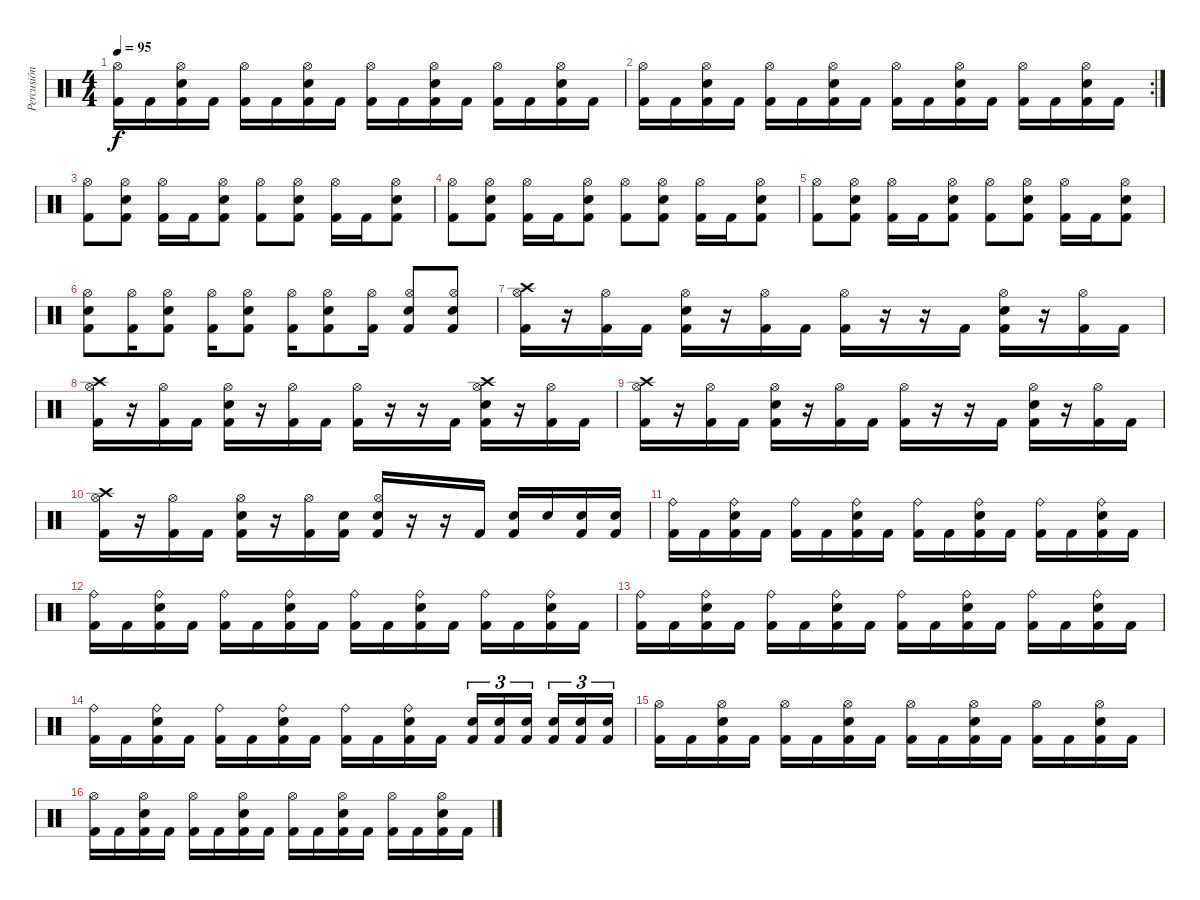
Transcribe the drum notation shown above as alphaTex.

\track ("Percusión" "Percusión") {instrument percussion}
\staff {score}
\articulation defaults
\ts (4 4)
\tempo 95
\clef neutral
\ks c
("Kick (hit) 2" "Hi-Hat (open)").16{dy f} "Kick (hit) 2".16 ("Kick (hit) 2" "Hi-Hat (open)" "Electric Snare (hit)").16 "Kick (hit) 2".16 ("Kick (hit) 2" "Hi-Hat (open)").16 "Kick (hit) 2".16 ("Kick (hit) 2" "Hi-Hat (open)" "Electric Snare (hit)").16 "Kick (hit) 2".16 ("Kick (hit) 2" "Hi-Hat (open)").16 "Kick (hit) 2".16 ("Kick (hit) 2" "Hi-Hat (open)" "Electric Snare (hit)").16 "Kick (hit) 2".16 ("Kick (hit) 2" "Hi-Hat (open)").16 "Kick (hit) 2".16 ("Kick (hit) 2" "Hi-Hat (open)" "Electric Snare (hit)").16 "Kick (hit) 2".16 |
\rc 2
("Kick (hit) 2" "Hi-Hat (open)").16 "Kick (hit) 2".16 ("Kick (hit) 2" "Hi-Hat (open)" "Electric Snare (hit)").16 "Kick (hit) 2".16 ("Kick (hit) 2" "Hi-Hat (open)").16 "Kick (hit) 2".16 ("Kick (hit) 2" "Hi-Hat (open)" "Electric Snare (hit)").16 "Kick (hit) 2".16 ("Kick (hit) 2" "Hi-Hat (open)").16 "Kick (hit) 2".16 ("Kick (hit) 2" "Hi-Hat (open)" "Electric Snare (hit)").16 "Kick (hit) 2".16 ("Kick (hit) 2" "Hi-Hat (open)").16 "Kick (hit) 2".16 ("Kick (hit) 2" "Hi-Hat (open)" "Electric Snare (hit)").16 "Kick (hit) 2".16 |
("Kick (hit) 2" "Hi-Hat (open)").8 ("Kick (hit) 2" "Hi-Hat (open)" "Electric Snare (hit)").8 ("Kick (hit) 2" "Hi-Hat (open)").16 "Kick (hit) 2".16 ("Kick (hit) 2" "Hi-Hat (open)" "Electric Snare (hit)").8 ("Kick (hit) 2" "Hi-Hat (open)").8 ("Kick (hit) 2" "Hi-Hat (open)" "Electric Snare (hit)").8 ("Kick (hit) 2" "Hi-Hat (open)").16 "Kick (hit) 2".16 ("Kick (hit) 2" "Hi-Hat (open)" "Electric Snare (hit)").8 |
("Kick (hit) 2" "Hi-Hat (open)").8 ("Kick (hit) 2" "Hi-Hat (open)" "Electric Snare (hit)").8 ("Kick (hit) 2" "Hi-Hat (open)").16 "Kick (hit) 2".16 ("Kick (hit) 2" "Hi-Hat (open)" "Electric Snare (hit)").8 ("Kick (hit) 2" "Hi-Hat (open)").8 ("Kick (hit) 2" "Hi-Hat (open)" "Electric Snare (hit)").8 ("Kick (hit) 2" "Hi-Hat (open)").16 "Kick (hit) 2".16 ("Kick (hit) 2" "Hi-Hat (open)" "Electric Snare (hit)").8 |
("Kick (hit) 2" "Hi-Hat (open)").8 ("Kick (hit) 2" "Hi-Hat (open)" "Electric Snare (hit)").8 ("Kick (hit) 2" "Hi-Hat (open)").16 "Kick (hit) 2".16 ("Kick (hit) 2" "Hi-Hat (open)" "Electric Snare (hit)").8 ("Kick (hit) 2" "Hi-Hat (open)").8 ("Kick (hit) 2" "Hi-Hat (open)" "Electric Snare (hit)").8 ("Kick (hit) 2" "Hi-Hat (open)").16 "Kick (hit) 2".16 ("Kick (hit) 2" "Hi-Hat (open)" "Electric Snare (hit)").8 |
("Kick (hit) 2" "Hi-Hat (open)" "Electric Snare (hit)").8 ("Kick (hit) 2" "Hi-Hat (open)").16 ("Kick (hit) 2" "Hi-Hat (open)" "Electric Snare (hit)").8 ("Kick (hit) 2" "Hi-Hat (open)").16 ("Kick (hit) 2" "Hi-Hat (open)" "Electric Snare (hit)").8 ("Kick (hit) 2" "Hi-Hat (open)").16 ("Kick (hit) 2" "Hi-Hat (open)" "Electric Snare (hit)").8 ("Kick (hit) 2" "Hi-Hat (open)").16 ("Kick (hit) 2" "Hi-Hat (open)" "Electric Snare (hit)").8 ("Kick (hit) 2" "Hi-Hat (open)" "Electric Snare (hit)").8 |
("Kick (hit) 2" "Hi-Hat (open)" "Crash high (hit)").16 r.16 ("Kick (hit) 2" "Hi-Hat (open)").16 "Kick (hit) 2".16 ("Kick (hit) 2" "Hi-Hat (open)" "Electric Snare (hit)").16 r.16 ("Kick (hit) 2" "Hi-Hat (open)").16 "Kick (hit) 2".16 ("Kick (hit) 2" "Hi-Hat (open)").16 r.16 r.16 "Kick (hit) 2".16 ("Kick (hit) 2" "Hi-Hat (open)" "Electric Snare (hit)").16 r.16 ("Kick (hit) 2" "Hi-Hat (open)").16 "Kick (hit) 2".16 |
("Kick (hit) 2" "Hi-Hat (open)" "Crash high (hit)").16 r.16 ("Kick (hit) 2" "Hi-Hat (open)").16 "Kick (hit) 2".16 ("Kick (hit) 2" "Hi-Hat (open)" "Electric Snare (hit)").16 r.16 ("Kick (hit) 2" "Hi-Hat (open)").16 "Kick (hit) 2".16 ("Kick (hit) 2" "Hi-Hat (open)").16 r.16 r.16 "Kick (hit) 2".16 ("Kick (hit) 2" "Hi-Hat (open)" "Electric Snare (hit)" "Crash high (hit)").16 r.16 ("Kick (hit) 2" "Hi-Hat (open)").16 "Kick (hit) 2".16 |
("Kick (hit) 2" "Hi-Hat (open)" "Crash high (hit)").16 r.16 ("Kick (hit) 2" "Hi-Hat (open)").16 "Kick (hit) 2".16 ("Kick (hit) 2" "Hi-Hat (open)" "Electric Snare (hit)").16 r.16 ("Kick (hit) 2" "Hi-Hat (open)").16 "Kick (hit) 2".16 ("Kick (hit) 2" "Hi-Hat (open)").16 r.16 r.16 "Kick (hit) 2".16 ("Kick (hit) 2" "Hi-Hat (open)" "Electric Snare (hit)").16 r.16 ("Kick (hit) 2" "Hi-Hat (open)").16 "Kick (hit) 2".16 |
("Kick (hit) 2" "Hi-Hat (open)" "Crash high (hit)").16 r.16 ("Kick (hit) 2" "Hi-Hat (open)").16 "Kick (hit) 2".16 ("Kick (hit) 2" "Hi-Hat (open)" "Electric Snare (hit)").16 r.16 ("Kick (hit) 2" "Hi-Hat (open)").16 ("Kick (hit) 2" "Electric Snare (hit)").16 ("Kick (hit) 2" "Electric Snare (hit)" "Hi-Hat (open)").16 r.16 r.16 "Kick (hit) 2".16 ("Kick (hit) 2" "Electric Snare (hit)").16 "Electric Snare (hit)".16 ("Kick (hit) 2" "Electric Snare (hit)").16 ("Kick (hit) 2" "Electric Snare (hit)").16 |
("Kick (hit) 2" "Ride (bell)").16 "Kick (hit) 2".16 ("Kick (hit) 2" "Ride (bell)" "Electric Snare (hit)").16 "Kick (hit) 2".16 ("Kick (hit) 2" "Ride (bell)").16 "Kick (hit) 2".16 ("Kick (hit) 2" "Ride (bell)" "Electric Snare (hit)").16 "Kick (hit) 2".16 ("Kick (hit) 2" "Ride (bell)").16 "Kick (hit) 2".16 ("Kick (hit) 2" "Ride (bell)" "Electric Snare (hit)").16 "Kick (hit) 2".16 ("Kick (hit) 2" "Ride (bell)").16 "Kick (hit) 2".16 ("Kick (hit) 2" "Ride (bell)" "Electric Snare (hit)").16 "Kick (hit) 2".16 |
("Kick (hit) 2" "Ride (bell)").16 "Kick (hit) 2".16 ("Kick (hit) 2" "Ride (bell)" "Electric Snare (hit)").16 "Kick (hit) 2".16 ("Kick (hit) 2" "Ride (bell)").16 "Kick (hit) 2".16 ("Kick (hit) 2" "Ride (bell)" "Electric Snare (hit)").16 "Kick (hit) 2".16 ("Kick (hit) 2" "Ride (bell)").16 "Kick (hit) 2".16 ("Kick (hit) 2" "Ride (bell)" "Electric Snare (hit)").16 "Kick (hit) 2".16 ("Kick (hit) 2" "Ride (bell)").16 "Kick (hit) 2".16 ("Kick (hit) 2" "Ride (bell)" "Electric Snare (hit)").16 "Kick (hit) 2".16 |
("Kick (hit) 2" "Ride (bell)").16 "Kick (hit) 2".16 ("Kick (hit) 2" "Ride (bell)" "Electric Snare (hit)").16 "Kick (hit) 2".16 ("Kick (hit) 2" "Ride (bell)").16 "Kick (hit) 2".16 ("Kick (hit) 2" "Ride (bell)" "Electric Snare (hit)").16 "Kick (hit) 2".16 ("Kick (hit) 2" "Ride (bell)").16 "Kick (hit) 2".16 ("Kick (hit) 2" "Ride (bell)" "Electric Snare (hit)").16 "Kick (hit) 2".16 ("Kick (hit) 2" "Ride (bell)").16 "Kick (hit) 2".16 ("Kick (hit) 2" "Ride (bell)" "Electric Snare (hit)").16 "Kick (hit) 2".16 |
("Kick (hit) 2" "Ride (bell)").16 "Kick (hit) 2".16 ("Kick (hit) 2" "Ride (bell)" "Electric Snare (hit)").16 "Kick (hit) 2".16 ("Kick (hit) 2" "Ride (bell)").16 "Kick (hit) 2".16 ("Kick (hit) 2" "Ride (bell)" "Electric Snare (hit)").16 "Kick (hit) 2".16 ("Kick (hit) 2" "Ride (bell)").16 "Kick (hit) 2".16 ("Kick (hit) 2" "Ride (bell)" "Electric Snare (hit)").16 "Kick (hit) 2".16 ("Kick (hit) 2" "Electric Snare (hit)").16{tu (3 2)} ("Kick (hit) 2" "Electric Snare (hit)").16{tu (3 2)} ("Kick (hit) 2" "Electric Snare (hit)").16{tu (3 2)} ("Kick (hit) 2" "Electric Snare (hit)").16{tu (3 2)} ("Kick (hit) 2" "Electric Snare (hit)").16{tu (3 2)} ("Kick (hit) 2" "Electric Snare (hit)").16{tu (3 2)} |
("Kick (hit) 2" "Hi-Hat (open)").16 "Kick (hit) 2".16 ("Kick (hit) 2" "Hi-Hat (open)" "Electric Snare (hit)").16 "Kick (hit) 2".16 ("Kick (hit) 2" "Hi-Hat (open)").16 "Kick (hit) 2".16 ("Kick (hit) 2" "Hi-Hat (open)" "Electric Snare (hit)").16 "Kick (hit) 2".16 ("Kick (hit) 2" "Hi-Hat (open)").16 "Kick (hit) 2".16 ("Kick (hit) 2" "Hi-Hat (open)" "Electric Snare (hit)").16 "Kick (hit) 2".16 ("Kick (hit) 2" "Hi-Hat (open)").16 "Kick (hit) 2".16 ("Kick (hit) 2" "Hi-Hat (open)" "Electric Snare (hit)").16 "Kick (hit) 2".16 |
("Kick (hit) 2" "Hi-Hat (open)").16 "Kick (hit) 2".16 ("Kick (hit) 2" "Hi-Hat (open)" "Electric Snare (hit)").16 "Kick (hit) 2".16 ("Kick (hit) 2" "Hi-Hat (open)").16 "Kick (hit) 2".16 ("Kick (hit) 2" "Hi-Hat (open)" "Electric Snare (hit)").16 "Kick (hit) 2".16 ("Kick (hit) 2" "Hi-Hat (open)").16 "Kick (hit) 2".16 ("Kick (hit) 2" "Hi-Hat (open)" "Electric Snare (hit)").16 "Kick (hit) 2".16 ("Kick (hit) 2" "Hi-Hat (open)").16 "Kick (hit) 2".16 ("Kick (hit) 2" "Hi-Hat (open)" "Electric Snare (hit)").16 "Kick (hit) 2".16
